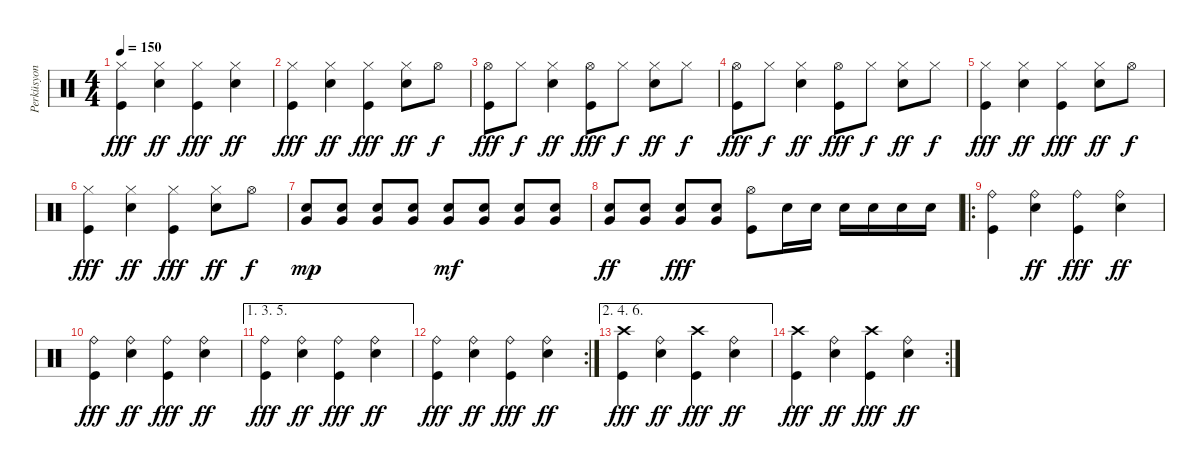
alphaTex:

\track ("Perküsyon" "Perküsyon") {instrument percussion}
\staff {score}
\articulation defaults
\ts (4 4)
\tempo 150
\clef neutral
\ks c
("Hi-Hat (closed)" "Kick (hit)").4{dy fff} ("Hi-Hat (closed)" "Snare (hit) 2").4{dy ff} ("Hi-Hat (closed)" "Kick (hit)").4{dy fff} ("Hi-Hat (closed)" "Snare (hit) 2").4{dy ff} |
("Hi-Hat (closed)" "Kick (hit)").4{dy fff} ("Hi-Hat (closed)" "Snare (hit) 2").4{dy ff} ("Hi-Hat (closed)" "Kick (hit)").4{dy fff} ("Hi-Hat (closed)" "Snare (hit) 2").8{dy ff} "Hi-Hat (open)".8{dy f} |
("Hi-Hat (open)" "Kick (hit)").8{dy fff} "Hi-Hat (closed)".8{dy f} ("Hi-Hat (closed)" "Snare (hit) 2").4{dy ff} ("Hi-Hat (open)" "Kick (hit)").8{dy fff} "Hi-Hat (closed)".8{dy f} ("Hi-Hat (closed)" "Snare (hit) 2").8{dy ff} "Hi-Hat (closed)".8{dy f} |
("Hi-Hat (open)" "Kick (hit)").8{dy fff} "Hi-Hat (closed)".8{dy f} ("Hi-Hat (closed)" "Snare (hit) 2").4{dy ff} ("Hi-Hat (open)" "Kick (hit)").8{dy fff} "Hi-Hat (closed)".8{dy f} ("Hi-Hat (closed)" "Snare (hit) 2").8{dy ff} "Hi-Hat (closed)".8{dy f} |
("Hi-Hat (closed)" "Kick (hit)").4{dy fff} ("Hi-Hat (closed)" "Snare (hit) 2").4{dy ff} ("Hi-Hat (closed)" "Kick (hit)").4{dy fff} ("Hi-Hat (closed)" "Snare (hit) 2").8{dy ff} "Hi-Hat (open)".8{dy f} |
("Hi-Hat (closed)" "Kick (hit)").4{dy fff} ("Hi-Hat (closed)" "Snare (hit) 2").4{dy ff} ("Hi-Hat (closed)" "Kick (hit)").4{dy fff} ("Hi-Hat (closed)" "Snare (hit) 2").8{dy ff} "Hi-Hat (open)".8{dy f} |
("Snare (hit) 2" "Very Low Tom (hit)").8{dy mp} ("Snare (hit) 2" "Very Low Tom (hit)").8 ("Snare (hit) 2" "Very Low Tom (hit)").8 ("Snare (hit) 2" "Very Low Tom (hit)").8 ("Snare (hit) 2" "Very Low Tom (hit)").8{dy mf} ("Snare (hit) 2" "Very Low Tom (hit)").8 ("Snare (hit) 2" "Very Low Tom (hit)").8 ("Snare (hit) 2" "Very Low Tom (hit)").8 |
("Snare (hit) 2" "Very Low Tom (hit)").8{dy ff} ("Snare (hit) 2" "Very Low Tom (hit)").8 ("Snare (hit) 2" "Very Low Tom (hit)").8{dy fff} ("Snare (hit) 2" "Very Low Tom (hit)").8 ("Hi-Hat (open)" "Kick (hit)").8 "Snare (hit) 2".16 "Snare (hit) 2".16 "Snare (hit) 2".16 "Snare (hit) 2".16 "Snare (hit) 2".16 "Snare (hit) 2".16 |
\ro
("Ride (bell)" "Kick (hit)").4 ("Ride (bell)" "Snare (hit) 2").4{dy ff} ("Ride (bell)" "Kick (hit)").4{dy fff} ("Ride (bell)" "Snare (hit) 2").4{dy ff} |
("Ride (bell)" "Kick (hit)").4{dy fff} ("Ride (bell)" "Snare (hit) 2").4{dy ff} ("Ride (bell)" "Kick (hit)").4{dy fff} ("Ride (bell)" "Snare (hit) 2").4{dy ff} |
\ae (1 3 5)
("Ride (bell)" "Kick (hit)").4{dy fff} ("Ride (bell)" "Snare (hit) 2").4{dy ff} ("Ride (bell)" "Kick (hit)").4{dy fff} ("Ride (bell)" "Snare (hit) 2").4{dy ff} |
\rc 2
("Ride (bell)" "Kick (hit)").4{dy fff} ("Ride (bell)" "Snare (hit) 2").4{dy ff} ("Ride (bell)" "Kick (hit)").4{dy fff} ("Ride (bell)" "Snare (hit) 2").4{dy ff} |
\ae (2 4 6)
("Crash high (hit)" "Kick (hit)").4{dy fff} ("Ride (bell)" "Snare (hit) 2").4{dy ff} ("Crash high (hit)" "Kick (hit)").4{dy fff} ("Ride (bell)" "Snare (hit) 2").4{dy ff} |
\rc 2
("Crash high (hit)" "Kick (hit)").4{dy fff} ("Ride (bell)" "Snare (hit) 2").4{dy ff} ("Crash high (hit)" "Kick (hit)").4{dy fff} ("Ride (bell)" "Snare (hit) 2").4{dy ff}
